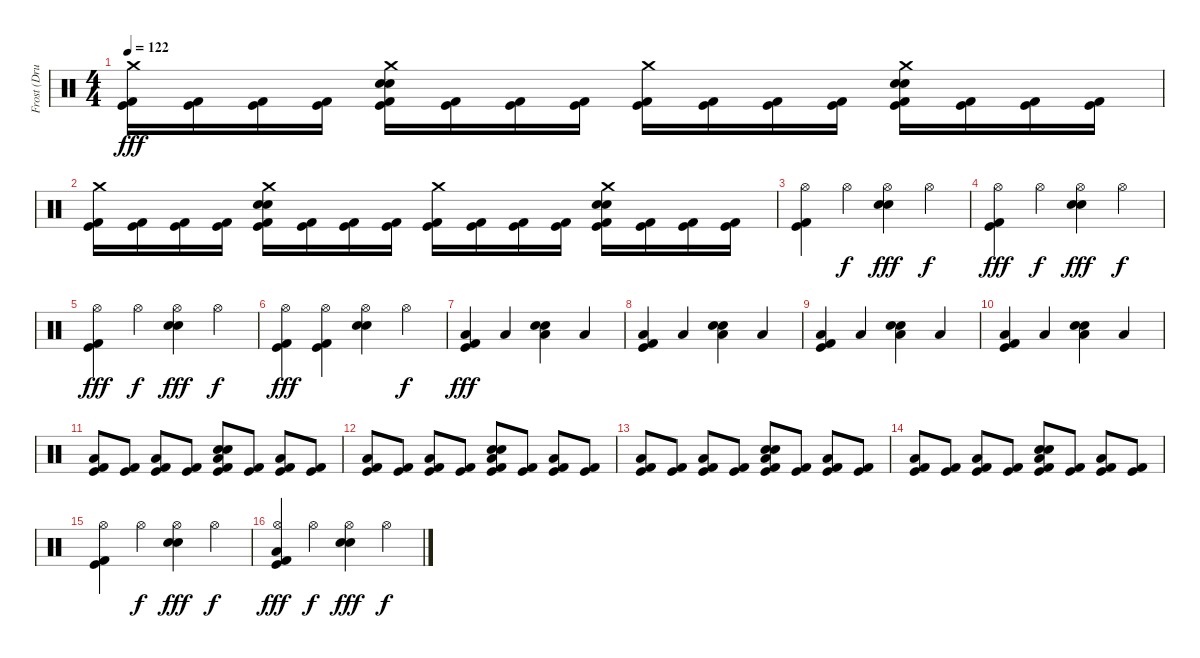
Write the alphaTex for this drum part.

\track ("Frost (Drums)" "Frost (Dru") {instrument percussion}
\staff {score}
\articulation defaults
\ts (4 4)
\tempo 122
\clef neutral
\ks c
("Crash medium (hit)" "Kick (hit)" "Kick (hit) 2").16{dy fff} ("Kick (hit)" "Kick (hit) 2").16 ("Kick (hit)" "Kick (hit) 2").16 ("Kick (hit)" "Kick (hit) 2").16 ("Crash medium (hit)" "Snare (hit) 2" "Electric Snare (hit)" "Kick (hit)" "Kick (hit) 2").16 ("Kick (hit)" "Kick (hit) 2").16 ("Kick (hit)" "Kick (hit) 2").16 ("Kick (hit)" "Kick (hit) 2").16 ("Crash medium (hit)" "Kick (hit)" "Kick (hit) 2").16 ("Kick (hit)" "Kick (hit) 2").16 ("Kick (hit)" "Kick (hit) 2").16 ("Kick (hit)" "Kick (hit) 2").16 ("Crash medium (hit)" "Snare (hit) 2" "Electric Snare (hit)" "Kick (hit)" "Kick (hit) 2").16 ("Kick (hit)" "Kick (hit) 2").16 ("Kick (hit)" "Kick (hit) 2").16 ("Kick (hit)" "Kick (hit) 2").16 |
("Crash medium (hit)" "Kick (hit)" "Kick (hit) 2").16 ("Kick (hit)" "Kick (hit) 2").16 ("Kick (hit)" "Kick (hit) 2").16 ("Kick (hit)" "Kick (hit) 2").16 ("Crash medium (hit)" "Snare (hit) 2" "Electric Snare (hit)" "Kick (hit)" "Kick (hit) 2").16 ("Kick (hit)" "Kick (hit) 2").16 ("Kick (hit)" "Kick (hit) 2").16 ("Kick (hit)" "Kick (hit) 2").16 ("Crash medium (hit)" "Kick (hit)" "Kick (hit) 2").16 ("Kick (hit)" "Kick (hit) 2").16 ("Kick (hit)" "Kick (hit) 2").16 ("Kick (hit)" "Kick (hit) 2").16 ("Crash medium (hit)" "Snare (hit) 2" "Electric Snare (hit)" "Kick (hit)" "Kick (hit) 2").16 ("Kick (hit)" "Kick (hit) 2").16 ("Kick (hit)" "Kick (hit) 2").16 ("Kick (hit)" "Kick (hit) 2").16 |
("Hi-Hat (open)" "Kick (hit)" "Kick (hit) 2").4 "Hi-Hat (open)".4{dy f} ("Hi-Hat (open)" "Snare (hit) 2" "Electric Snare (hit)").4{dy fff} "Hi-Hat (open)".4{dy f} |
("Hi-Hat (open)" "Kick (hit)" "Kick (hit) 2").4{dy fff} "Hi-Hat (open)".4{dy f} ("Hi-Hat (open)" "Snare (hit) 2" "Electric Snare (hit)").4{dy fff} "Hi-Hat (open)".4{dy f} |
("Hi-Hat (open)" "Kick (hit)" "Kick (hit) 2").4{dy fff} "Hi-Hat (open)".4{dy f} ("Hi-Hat (open)" "Snare (hit) 2" "Electric Snare (hit)").4{dy fff} "Hi-Hat (open)".4{dy f} |
("Hi-Hat (open)" "Kick (hit)" "Kick (hit) 2").4{dy fff} ("Hi-Hat (open)" "Kick (hit)" "Kick (hit) 2").4 ("Hi-Hat (open)" "Snare (hit) 2" "Electric Snare (hit)").4 "Hi-Hat (open)".4{dy f} |
("Low Floor Tom (hit)" "Kick (hit)" "Kick (hit) 2").4{dy fff} "Low Floor Tom (hit)".4 ("Low Floor Tom (hit)" "Snare (hit) 2" "Electric Snare (hit)").4 "Low Floor Tom (hit)".4 |
("Low Floor Tom (hit)" "Kick (hit)" "Kick (hit) 2").4 "Low Floor Tom (hit)".4 ("Low Floor Tom (hit)" "Snare (hit) 2" "Electric Snare (hit)").4 "Low Floor Tom (hit)".4 |
("Low Floor Tom (hit)" "Kick (hit)" "Kick (hit) 2").4 "Low Floor Tom (hit)".4 ("Low Floor Tom (hit)" "Snare (hit) 2" "Electric Snare (hit)").4 "Low Floor Tom (hit)".4 |
("Low Floor Tom (hit)" "Kick (hit)" "Kick (hit) 2").4 "Low Floor Tom (hit)".4 ("Low Floor Tom (hit)" "Snare (hit) 2" "Electric Snare (hit)").4 "Low Floor Tom (hit)".4 |
("Low Floor Tom (hit)" "Kick (hit)" "Kick (hit) 2").8 ("Kick (hit)" "Kick (hit) 2").8 ("Low Floor Tom (hit)" "Kick (hit)" "Kick (hit) 2").8 ("Kick (hit)" "Kick (hit) 2").8 ("Low Floor Tom (hit)" "Snare (hit) 2" "Electric Snare (hit)" "Kick (hit)" "Kick (hit) 2").8 ("Kick (hit)" "Kick (hit) 2").8 ("Low Floor Tom (hit)" "Kick (hit)" "Kick (hit) 2").8 ("Kick (hit)" "Kick (hit) 2").8 |
("Low Floor Tom (hit)" "Kick (hit)" "Kick (hit) 2").8 ("Kick (hit)" "Kick (hit) 2").8 ("Low Floor Tom (hit)" "Kick (hit)" "Kick (hit) 2").8 ("Kick (hit)" "Kick (hit) 2").8 ("Low Floor Tom (hit)" "Snare (hit) 2" "Electric Snare (hit)" "Kick (hit)" "Kick (hit) 2").8 ("Kick (hit)" "Kick (hit) 2").8 ("Low Floor Tom (hit)" "Kick (hit)" "Kick (hit) 2").8 ("Kick (hit)" "Kick (hit) 2").8 |
("Low Floor Tom (hit)" "Kick (hit)" "Kick (hit) 2").8 ("Kick (hit)" "Kick (hit) 2").8 ("Low Floor Tom (hit)" "Kick (hit)" "Kick (hit) 2").8 ("Kick (hit)" "Kick (hit) 2").8 ("Low Floor Tom (hit)" "Snare (hit) 2" "Electric Snare (hit)" "Kick (hit)" "Kick (hit) 2").8 ("Kick (hit)" "Kick (hit) 2").8 ("Low Floor Tom (hit)" "Kick (hit)" "Kick (hit) 2").8 ("Kick (hit)" "Kick (hit) 2").8 |
("Low Floor Tom (hit)" "Kick (hit)" "Kick (hit) 2").8 ("Kick (hit)" "Kick (hit) 2").8 ("Low Floor Tom (hit)" "Kick (hit)" "Kick (hit) 2").8 ("Kick (hit)" "Kick (hit) 2").8 ("Low Floor Tom (hit)" "Snare (hit) 2" "Electric Snare (hit)" "Kick (hit)" "Kick (hit) 2").8 ("Kick (hit)" "Kick (hit) 2").8 ("Low Floor Tom (hit)" "Kick (hit)" "Kick (hit) 2").8 ("Kick (hit)" "Kick (hit) 2").8 |
("Hi-Hat (open)" "Kick (hit)" "Kick (hit) 2").4 "Hi-Hat (open)".4{dy f} ("Hi-Hat (open)" "Snare (hit) 2" "Electric Snare (hit)").4{dy fff} "Hi-Hat (open)".4{dy f} |
("Hi-Hat (open)" "Low Floor Tom (hit)" "Kick (hit)" "Kick (hit) 2").4{dy fff} "Hi-Hat (open)".4{dy f} ("Hi-Hat (open)" "Snare (hit) 2" "Electric Snare (hit)").4{dy fff} "Hi-Hat (open)".4{dy f}
